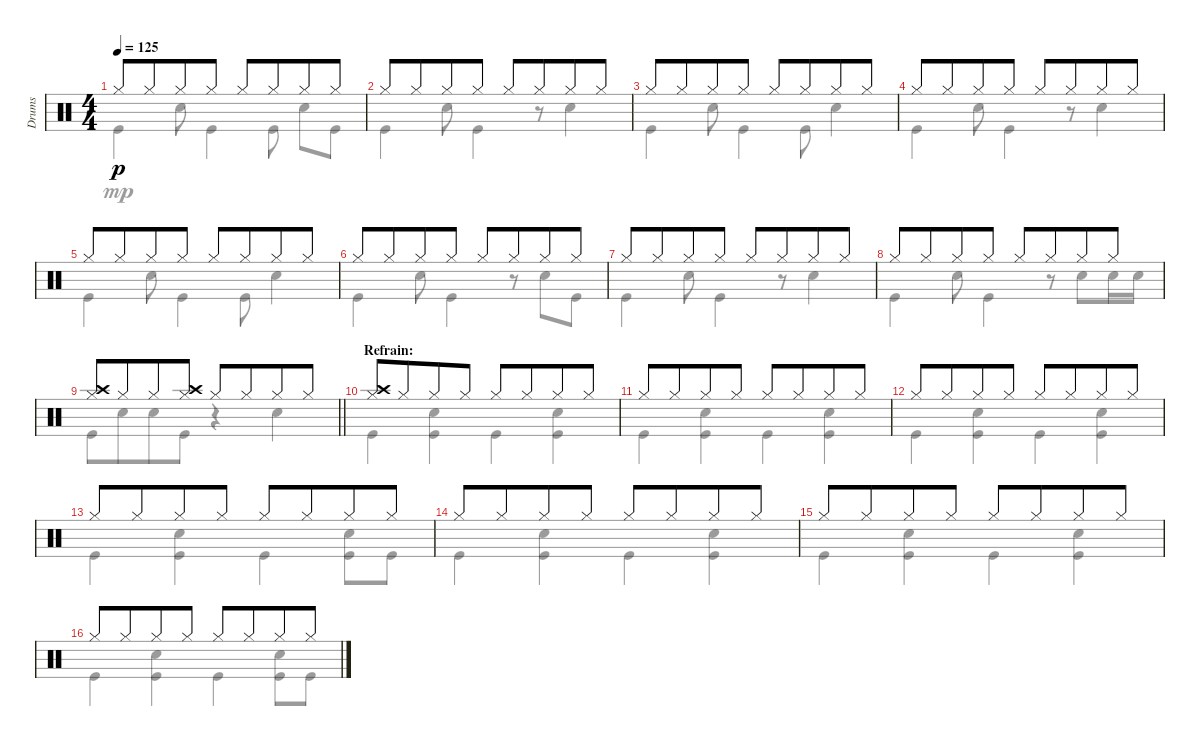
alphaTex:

\track ("Drums" "Drums") {instrument percussion}
\staff {score}
\articulation defaults
\voice
\ts (4 4)
\tempo 125
\clef neutral
\ks c "Hi-Hat (closed)".8{dy p} "Hi-Hat (closed)".8{beam merge} "Hi-Hat (closed)".8 "Hi-Hat (closed)".8 "Hi-Hat (closed)".8 "Hi-Hat (closed)".8{beam merge} "Hi-Hat (closed)".8 "Hi-Hat (closed)".8
|
"Hi-Hat (closed)".8 "Hi-Hat (closed)".8{beam merge} "Hi-Hat (closed)".8 "Hi-Hat (closed)".8 "Hi-Hat (closed)".8 "Hi-Hat (closed)".8{beam merge} "Hi-Hat (closed)".8 "Hi-Hat (closed)".8 |
"Hi-Hat (closed)".8 "Hi-Hat (closed)".8{beam merge} "Hi-Hat (closed)".8 "Hi-Hat (closed)".8 "Hi-Hat (closed)".8 "Hi-Hat (closed)".8{beam merge} "Hi-Hat (closed)".8 "Hi-Hat (closed)".8 |
"Hi-Hat (closed)".8 "Hi-Hat (closed)".8{beam merge} "Hi-Hat (closed)".8 "Hi-Hat (closed)".8 "Hi-Hat (closed)".8 "Hi-Hat (closed)".8{beam merge} "Hi-Hat (closed)".8 "Hi-Hat (closed)".8 |
"Hi-Hat (closed)".8 "Hi-Hat (closed)".8{beam merge} "Hi-Hat (closed)".8 "Hi-Hat (closed)".8 "Hi-Hat (closed)".8 "Hi-Hat (closed)".8{beam merge} "Hi-Hat (closed)".8 "Hi-Hat (closed)".8 |
"Hi-Hat (closed)".8 "Hi-Hat (closed)".8{beam merge} "Hi-Hat (closed)".8 "Hi-Hat (closed)".8 "Hi-Hat (closed)".8 "Hi-Hat (closed)".8{beam merge} "Hi-Hat (closed)".8 "Hi-Hat (closed)".8 |
"Hi-Hat (closed)".8 "Hi-Hat (closed)".8{beam merge} "Hi-Hat (closed)".8 "Hi-Hat (closed)".8 "Hi-Hat (closed)".8 "Hi-Hat (closed)".8{beam merge} "Hi-Hat (closed)".8 "Hi-Hat (closed)".8 |
"Hi-Hat (closed)".8 "Hi-Hat (closed)".8{beam merge} "Hi-Hat (closed)".8 "Hi-Hat (closed)".8 "Hi-Hat (closed)".8 "Hi-Hat (closed)".8{beam merge} "Hi-Hat (closed)".8 "Hi-Hat (closed)".8 |
\barLineRight lightlight
("Hi-Hat (closed)" "Crash high (hit)").8 "Hi-Hat (closed)".8{beam merge} "Hi-Hat (closed)".8 ("Hi-Hat (closed)" "Crash high (hit)").8 "Hi-Hat (closed)".8 "Hi-Hat (closed)".8{beam merge} "Hi-Hat (closed)".8 "Hi-Hat (closed)".8 |
\section ("" "Refrain:")
("Hi-Hat (closed)" "Crash high (hit)").8 "Hi-Hat (closed)".8{beam merge} "Hi-Hat (closed)".8 "Hi-Hat (closed)".8 "Hi-Hat (closed)".8 "Hi-Hat (closed)".8{beam merge} "Hi-Hat (closed)".8 "Hi-Hat (closed)".8 |
"Hi-Hat (closed)".8 "Hi-Hat (closed)".8{beam merge} "Hi-Hat (closed)".8 "Hi-Hat (closed)".8 "Hi-Hat (closed)".8 "Hi-Hat (closed)".8{beam merge} "Hi-Hat (closed)".8 "Hi-Hat (closed)".8 |
"Hi-Hat (closed)".8 "Hi-Hat (closed)".8{beam merge} "Hi-Hat (closed)".8 "Hi-Hat (closed)".8 "Hi-Hat (closed)".8 "Hi-Hat (closed)".8{beam merge} "Hi-Hat (closed)".8 "Hi-Hat (closed)".8 |
"Hi-Hat (closed)".8 "Hi-Hat (closed)".8{beam merge} "Hi-Hat (closed)".8 "Hi-Hat (closed)".8 "Hi-Hat (closed)".8 "Hi-Hat (closed)".8{beam merge} "Hi-Hat (closed)".8 "Hi-Hat (closed)".8 |
"Hi-Hat (closed)".8 "Hi-Hat (closed)".8{beam merge} "Hi-Hat (closed)".8 "Hi-Hat (closed)".8 "Hi-Hat (closed)".8 "Hi-Hat (closed)".8{beam merge} "Hi-Hat (closed)".8 "Hi-Hat (closed)".8 |
"Hi-Hat (closed)".8 "Hi-Hat (closed)".8{beam merge} "Hi-Hat (closed)".8 "Hi-Hat (closed)".8 "Hi-Hat (closed)".8 "Hi-Hat (closed)".8{beam merge} "Hi-Hat (closed)".8 "Hi-Hat (closed)".8 |
"Hi-Hat (closed)".8 "Hi-Hat (closed)".8{beam merge} "Hi-Hat (closed)".8 "Hi-Hat (closed)".8 "Hi-Hat (closed)".8 "Hi-Hat (closed)".8{beam merge} "Hi-Hat (closed)".8 "Hi-Hat (closed)".8
\voice
\clef neutral
\ottava regular
\simile none
\ks c "Kick (hit)".4{dy mp} "Snare (hit) 2".8 "Kick (hit)".4 "Kick (hit)".8 "Snare (hit) 2".8 "Kick (hit)".8
|
"Kick (hit)".4 "Snare (hit) 2".8 "Kick (hit)".4 r.8 "Snare (hit) 2".4 |
"Kick (hit)".4 "Snare (hit) 2".8 "Kick (hit)".4 "Kick (hit)".8 "Snare (hit) 2".4 |
"Kick (hit)".4 "Snare (hit) 2".8 "Kick (hit)".4 r.8 "Snare (hit) 2".4 |
"Kick (hit)".4 "Snare (hit) 2".8 "Kick (hit)".4 "Kick (hit)".8 "Snare (hit) 2".4 |
"Kick (hit)".4 "Snare (hit) 2".8 "Kick (hit)".4 r.8 "Snare (hit) 2".8 "Kick (hit)".8 |
"Kick (hit)".4 "Snare (hit) 2".8 "Kick (hit)".4 r.8 "Snare (hit) 2".4 |
"Kick (hit)".4 "Snare (hit) 2".8 "Kick (hit)".4 r.8 "Snare (hit) 2".8 "Snare (hit) 2".16 "Snare (hit) 2".16 |
\barLineRight lightlight "Kick (hit)".8 "Snare (hit) 2".8{beam merge} "Snare (hit) 2".8 "Kick (hit)".8
r.4 "Snare (hit) 2".4 |
"Kick (hit)".4 ("Snare (hit) 2" "Kick (hit)").4 "Kick (hit)".4 ("Snare (hit) 2" "Kick (hit)").4 |
"Kick (hit)".4 ("Snare (hit) 2" "Kick (hit)").4 "Kick (hit)".4 ("Snare (hit) 2" "Kick (hit)").4 |
"Kick (hit)".4 ("Snare (hit) 2" "Kick (hit)").4 "Kick (hit)".4 ("Snare (hit) 2" "Kick (hit)").4 |
"Kick (hit)".4 ("Snare (hit) 2" "Kick (hit)").4 "Kick (hit)".4 ("Snare (hit) 2" "Kick (hit)").8 "Kick (hit)".8 |
"Kick (hit)".4 ("Snare (hit) 2" "Kick (hit)").4 "Kick (hit)".4 ("Snare (hit) 2" "Kick (hit)").4 |
"Kick (hit)".4 ("Snare (hit) 2" "Kick (hit)").4 "Kick (hit)".4 ("Snare (hit) 2" "Kick (hit)").4 |
"Kick (hit)".4 ("Snare (hit) 2" "Kick (hit)").4 "Kick (hit)".4 ("Snare (hit) 2" "Kick (hit)").8 "Kick (hit)".8
